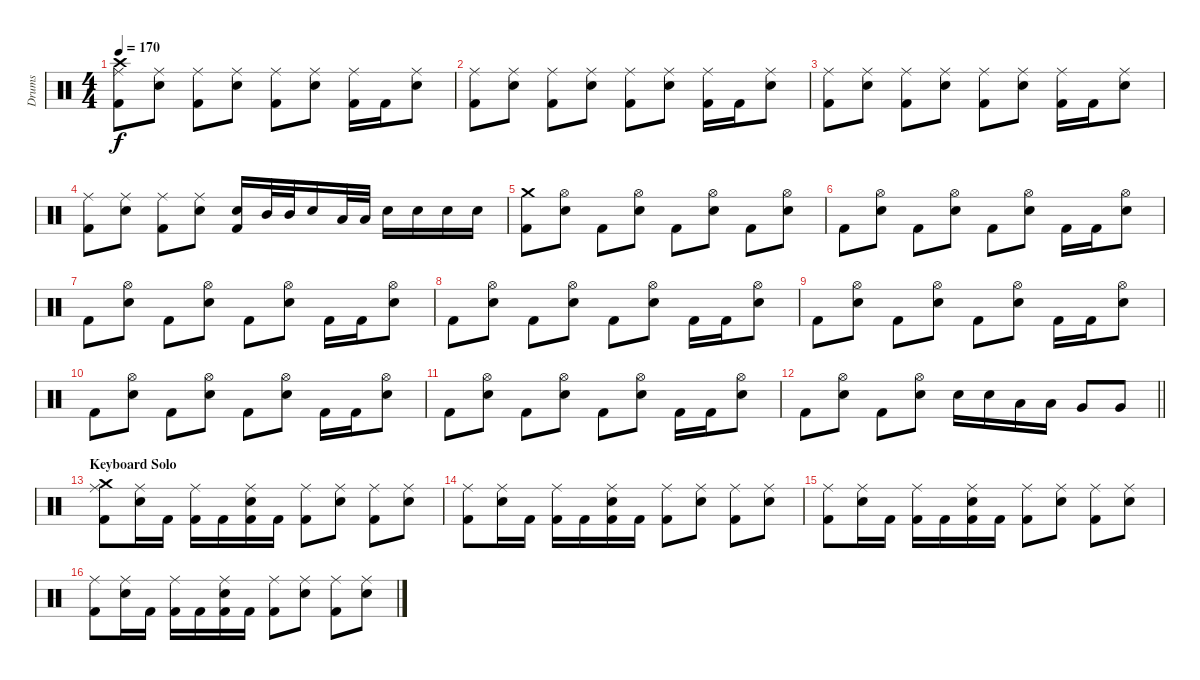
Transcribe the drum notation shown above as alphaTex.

\track ("Drums" "Drums") {instrument percussion}
\staff {score}
\articulation defaults
\ts (4 4)
\tempo 170
\clef neutral
\ks c
("Crash high (hit)" "Ride (middle)" "Kick (hit) 2").8{dy f} ("Ride (middle)" "Electric Snare (hit)").8 ("Ride (middle)" "Kick (hit) 2").8 ("Ride (middle)" "Electric Snare (hit)").8 ("Ride (middle)" "Kick (hit) 2").8 ("Ride (middle)" "Electric Snare (hit)").8 ("Ride (middle)" "Kick (hit) 2").16 "Kick (hit) 2".16 ("Ride (middle)" "Electric Snare (hit)").8 |
("Ride (middle)" "Kick (hit) 2").8 ("Ride (middle)" "Electric Snare (hit)").8 ("Ride (middle)" "Kick (hit) 2").8 ("Ride (middle)" "Electric Snare (hit)").8 ("Ride (middle)" "Kick (hit) 2").8 ("Ride (middle)" "Electric Snare (hit)").8 ("Ride (middle)" "Kick (hit) 2").16 "Kick (hit) 2".16 ("Ride (middle)" "Electric Snare (hit)").8 |
("Ride (middle)" "Kick (hit) 2").8 ("Ride (middle)" "Electric Snare (hit)").8 ("Ride (middle)" "Kick (hit) 2").8 ("Ride (middle)" "Electric Snare (hit)").8 ("Ride (middle)" "Kick (hit) 2").8 ("Ride (middle)" "Electric Snare (hit)").8 ("Ride (middle)" "Kick (hit) 2").16 "Kick (hit) 2".16 ("Ride (middle)" "Electric Snare (hit)").8 |
("Ride (middle)" "Kick (hit) 2").8 ("Ride (middle)" "Electric Snare (hit)").8 ("Ride (middle)" "Kick (hit) 2").8 ("Ride (middle)" "Electric Snare (hit)").8 ("Electric Snare (hit)" "Kick (hit) 2").16 "Mid Tom (hit)".32 "Mid Tom (hit)".32 "Electric Snare (hit)".16 "Low Tom (hit)".32 "Low Tom (hit)".32 "Electric Snare (hit)".16 "Electric Snare (hit)".16 "Electric Snare (hit)".16 "Electric Snare (hit)".16 |
("Crash medium (hit)" "Kick (hit) 2").8 ("Hi-Hat (open)" "Electric Snare (hit)").8 "Kick (hit) 2".8 ("Hi-Hat (open)" "Electric Snare (hit)").8 "Kick (hit) 2".8 ("Hi-Hat (open)" "Electric Snare (hit)").8 "Kick (hit) 2".8 ("Hi-Hat (open)" "Electric Snare (hit)").8 |
"Kick (hit) 2".8 ("Hi-Hat (open)" "Electric Snare (hit)").8 "Kick (hit) 2".8 ("Hi-Hat (open)" "Electric Snare (hit)").8 "Kick (hit) 2".8 ("Hi-Hat (open)" "Electric Snare (hit)").8 "Kick (hit) 2".16 "Kick (hit) 2".16 ("Hi-Hat (open)" "Electric Snare (hit)").8 |
"Kick (hit) 2".8 ("Hi-Hat (open)" "Electric Snare (hit)").8 "Kick (hit) 2".8 ("Hi-Hat (open)" "Electric Snare (hit)").8 "Kick (hit) 2".8 ("Hi-Hat (open)" "Electric Snare (hit)").8 "Kick (hit) 2".16 "Kick (hit) 2".16 ("Hi-Hat (open)" "Electric Snare (hit)").8 |
"Kick (hit) 2".8 ("Hi-Hat (open)" "Electric Snare (hit)").8 "Kick (hit) 2".8 ("Hi-Hat (open)" "Electric Snare (hit)").8 "Kick (hit) 2".8 ("Hi-Hat (open)" "Electric Snare (hit)").8 "Kick (hit) 2".16 "Kick (hit) 2".16 ("Hi-Hat (open)" "Electric Snare (hit)").8 |
"Kick (hit) 2".8 ("Hi-Hat (open)" "Electric Snare (hit)").8 "Kick (hit) 2".8 ("Hi-Hat (open)" "Electric Snare (hit)").8 "Kick (hit) 2".8 ("Hi-Hat (open)" "Electric Snare (hit)").8 "Kick (hit) 2".16 "Kick (hit) 2".16 ("Hi-Hat (open)" "Electric Snare (hit)").8 |
"Kick (hit) 2".8 ("Hi-Hat (open)" "Electric Snare (hit)").8 "Kick (hit) 2".8 ("Hi-Hat (open)" "Electric Snare (hit)").8 "Kick (hit) 2".8 ("Hi-Hat (open)" "Electric Snare (hit)").8 "Kick (hit) 2".16 "Kick (hit) 2".16 ("Hi-Hat (open)" "Electric Snare (hit)").8 |
"Kick (hit) 2".8 ("Hi-Hat (open)" "Electric Snare (hit)").8 "Kick (hit) 2".8 ("Hi-Hat (open)" "Electric Snare (hit)").8 "Kick (hit) 2".8 ("Hi-Hat (open)" "Electric Snare (hit)").8 "Kick (hit) 2".16 "Kick (hit) 2".16 ("Hi-Hat (open)" "Electric Snare (hit)").8 |
\barLineRight lightlight "Kick (hit) 2".8
("Hi-Hat (open)" "Electric Snare (hit)").8 "Kick (hit) 2".8 ("Hi-Hat (open)" "Electric Snare (hit)").8 "Electric Snare (hit)".16 "Electric Snare (hit)".16 "Low Tom (hit)".16 "Low Tom (hit)".16 "Very Low Tom (hit)".8 "Very Low Tom (hit)".8 |
\section ("" "Keyboard Solo")
("Crash medium (hit)" "Ride (middle)" "Kick (hit) 2").8 ("Ride (middle)" "Electric Snare (hit)").16 "Kick (hit) 2".16 ("Ride (middle)" "Kick (hit) 2").16 "Kick (hit) 2".16 ("Ride (middle)" "Electric Snare (hit)" "Kick (hit) 2").16 "Kick (hit) 2".16 ("Ride (middle)" "Kick (hit) 2").8 ("Ride (middle)" "Electric Snare (hit)").8 ("Ride (middle)" "Kick (hit) 2").8 ("Ride (middle)" "Electric Snare (hit)").8 |
("Ride (middle)" "Kick (hit) 2").8 ("Ride (middle)" "Electric Snare (hit)").16 "Kick (hit) 2".16 ("Ride (middle)" "Kick (hit) 2").16 "Kick (hit) 2".16 ("Ride (middle)" "Electric Snare (hit)" "Kick (hit) 2").16 "Kick (hit) 2".16 ("Ride (middle)" "Kick (hit) 2").8 ("Ride (middle)" "Electric Snare (hit)").8 ("Ride (middle)" "Kick (hit) 2").8 ("Ride (middle)" "Electric Snare (hit)").8 |
("Ride (middle)" "Kick (hit) 2").8 ("Ride (middle)" "Electric Snare (hit)").16 "Kick (hit) 2".16 ("Ride (middle)" "Kick (hit) 2").16 "Kick (hit) 2".16 ("Ride (middle)" "Electric Snare (hit)" "Kick (hit) 2").16 "Kick (hit) 2".16 ("Ride (middle)" "Kick (hit) 2").8 ("Ride (middle)" "Electric Snare (hit)").8 ("Ride (middle)" "Kick (hit) 2").8 ("Ride (middle)" "Electric Snare (hit)").8 |
("Ride (middle)" "Kick (hit) 2").8 ("Ride (middle)" "Electric Snare (hit)").16 "Kick (hit) 2".16 ("Ride (middle)" "Kick (hit) 2").16 "Kick (hit) 2".16 ("Ride (middle)" "Electric Snare (hit)" "Kick (hit) 2").16 "Kick (hit) 2".16 ("Ride (middle)" "Kick (hit) 2").8 ("Ride (middle)" "Electric Snare (hit)").8 ("Ride (middle)" "Kick (hit) 2").8 ("Ride (middle)" "Electric Snare (hit)").8
